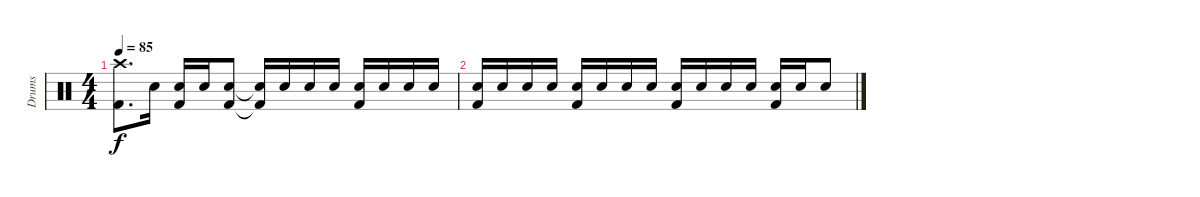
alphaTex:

\track ("Drums" "Drums") {instrument percussion}
\staff {score}
\articulation defaults
\ts (4 4)
\tempo 85
\clef neutral
\ks c
("Crash high (hit)" "Kick (hit) 2").8{d dy f} "Electric Snare (hit)".16 ("Electric Snare (hit)" "Kick (hit) 2").16 "Electric Snare (hit)".16 ("Electric Snare (hit)" "Kick (hit) 2").8 ("Snare (hit)"{t} "Kick (hit) 2"{t}).16 "Electric Snare (hit)".16 "Electric Snare (hit)".16 "Electric Snare (hit)".16 ("Electric Snare (hit)" "Kick (hit) 2").16 "Electric Snare (hit)".16 "Electric Snare (hit)".16 "Electric Snare (hit)".16 |
("Electric Snare (hit)" "Kick (hit) 2").16 "Electric Snare (hit)".16 "Electric Snare (hit)".16 "Electric Snare (hit)".16 ("Electric Snare (hit)" "Kick (hit) 2").16 "Electric Snare (hit)".16 "Electric Snare (hit)".16 "Electric Snare (hit)".16 ("Electric Snare (hit)" "Kick (hit) 2").16 "Electric Snare (hit)".16 "Electric Snare (hit)".16 "Electric Snare (hit)".16 ("Electric Snare (hit)" "Kick (hit) 2").16 "Electric Snare (hit)".16 "Electric Snare (hit)".8
